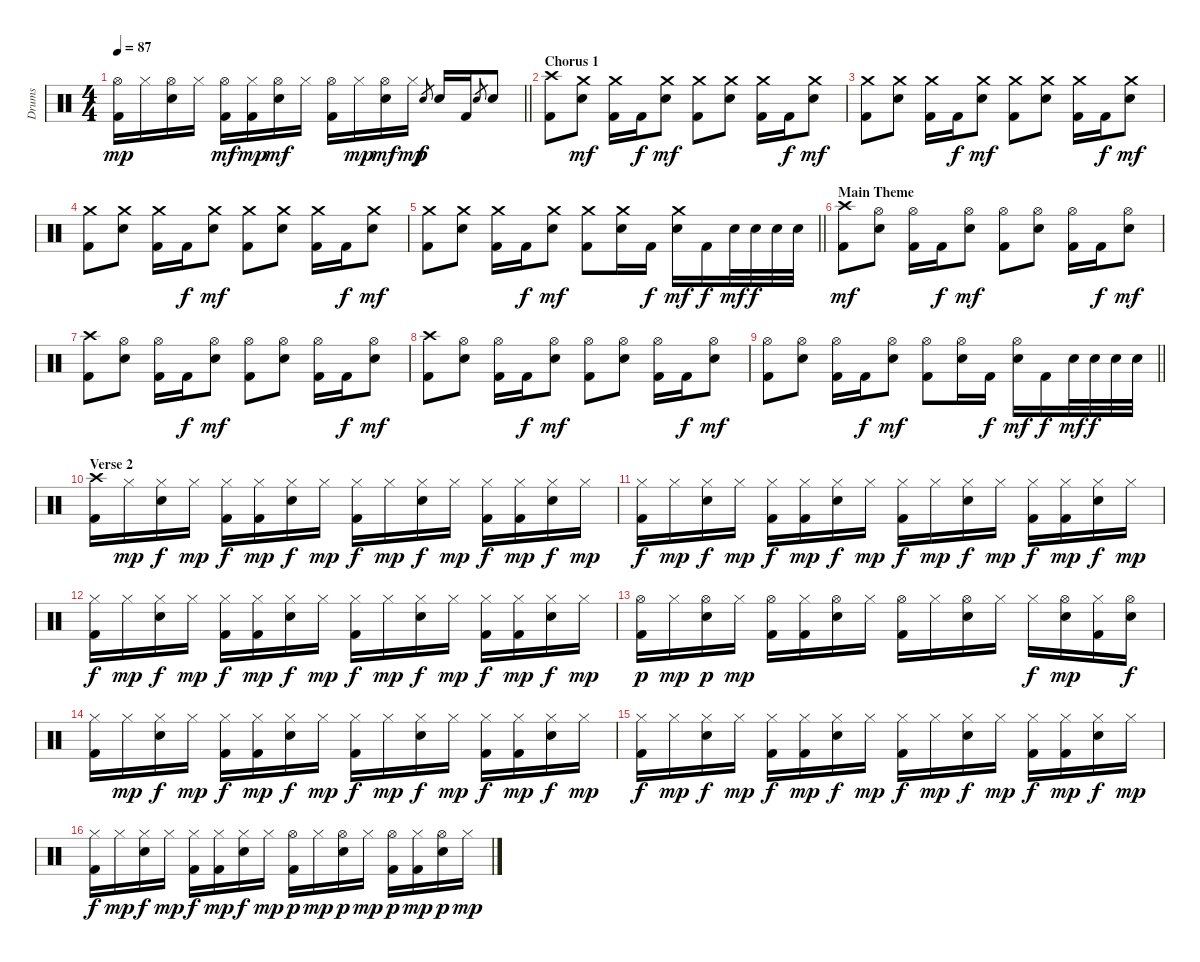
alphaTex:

\track ("Drums" "Drums") {instrument percussion}
\staff {score}
\articulation defaults
\ts (4 4)
\tempo 87
\clef neutral
\barLineRight lightlight
\ks c
("Hi-Hat (open)" "Kick (hit) 2").16{dy mp} "Hi-Hat (closed)".16 ("Hi-Hat (open)" "Electric Snare (hit)").16 "Hi-Hat (closed)".16 ("Hi-Hat (open)" "Kick (hit) 2").16{dy mf} ("Hi-Hat (closed)" "Kick (hit) 2").16{dy mp} ("Hi-Hat (open)" "Electric Snare (hit)").16{dy mf} "Hi-Hat (closed)".16 ("Hi-Hat (open)" "Kick (hit) 2").16 "Hi-Hat (closed)".16{dy mp} ("Hi-Hat (open)" "Electric Snare (hit)").16{dy mf} "Hi-Hat (closed)".16{dy mp} "Electric Snare (hit)".8{gr dy f} "Electric Snare (hit)".16 "Kick (hit) 2".16 "Electric Snare (hit)".8{gr} "Electric Snare (hit)".8 |
\section ("" "Chorus 1")
("Crash high (hit)" "Kick (hit) 2").8 ("Crash medium (hit)" "Electric Snare (hit)").8{dy mf} ("Crash medium (hit)" "Kick (hit) 2").16 "Kick (hit) 2".16{dy f} ("Crash medium (hit)" "Electric Snare (hit)").8{dy mf} ("Crash medium (hit)" "Kick (hit) 2").8 ("Crash medium (hit)" "Electric Snare (hit)").8 ("Crash medium (hit)" "Kick (hit) 2").16 "Kick (hit) 2".16{dy f} ("Crash medium (hit)" "Electric Snare (hit)").8{dy mf} |
("Crash medium (hit)" "Kick (hit) 2").8 ("Crash medium (hit)" "Electric Snare (hit)").8 ("Crash medium (hit)" "Kick (hit) 2").16 "Kick (hit) 2".16{dy f} ("Crash medium (hit)" "Electric Snare (hit)").8{dy mf} ("Crash medium (hit)" "Kick (hit) 2").8 ("Crash medium (hit)" "Electric Snare (hit)").8 ("Crash medium (hit)" "Kick (hit) 2").16 "Kick (hit) 2".16{dy f} ("Crash medium (hit)" "Electric Snare (hit)").8{dy mf} |
("Crash medium (hit)" "Kick (hit) 2").8 ("Crash medium (hit)" "Electric Snare (hit)").8 ("Crash medium (hit)" "Kick (hit) 2").16 "Kick (hit) 2".16{dy f} ("Crash medium (hit)" "Electric Snare (hit)").8{dy mf} ("Crash medium (hit)" "Kick (hit) 2").8 ("Crash medium (hit)" "Electric Snare (hit)").8 ("Crash medium (hit)" "Kick (hit) 2").16 "Kick (hit) 2".16{dy f} ("Crash medium (hit)" "Electric Snare (hit)").8{dy mf} |
\barLineRight lightlight
("Crash medium (hit)" "Kick (hit) 2").8 ("Crash medium (hit)" "Electric Snare (hit)").8 ("Crash medium (hit)" "Kick (hit) 2").16 "Kick (hit) 2".16{dy f} ("Crash medium (hit)" "Electric Snare (hit)").8{dy mf} ("Crash medium (hit)" "Kick (hit) 2").8 ("Crash medium (hit)" "Electric Snare (hit)").16 "Kick (hit) 2".16{dy f} ("Crash medium (hit)" "Electric Snare (hit)").16{dy mf} "Kick (hit) 2".16{dy f} "Electric Snare (hit)".32{dy mf} "Electric Snare (hit)".32{dy f} "Electric Snare (hit)".32 "Electric Snare (hit)".32 |
\section ("" "Main Theme")
("Crash high (hit)" "Kick (hit) 2").8{dy mf} ("Hi-Hat (open)" "Electric Snare (hit)").8 ("Hi-Hat (open)" "Kick (hit) 2").16 "Kick (hit) 2".16{dy f} ("Hi-Hat (open)" "Electric Snare (hit)").8{dy mf} ("Hi-Hat (open)" "Kick (hit) 2").8 ("Hi-Hat (open)" "Electric Snare (hit)").8 ("Hi-Hat (open)" "Kick (hit) 2").16 "Kick (hit) 2".16{dy f} ("Hi-Hat (open)" "Electric Snare (hit)").8{dy mf} |
("Crash high (hit)" "Kick (hit) 2").8 ("Hi-Hat (open)" "Electric Snare (hit)").8 ("Hi-Hat (open)" "Kick (hit) 2").16 "Kick (hit) 2".16{dy f} ("Hi-Hat (open)" "Electric Snare (hit)").8{dy mf} ("Hi-Hat (open)" "Kick (hit) 2").8 ("Hi-Hat (open)" "Electric Snare (hit)").8 ("Hi-Hat (open)" "Kick (hit) 2").16 "Kick (hit) 2".16{dy f} ("Hi-Hat (open)" "Electric Snare (hit)").8{dy mf} |
("Crash high (hit)" "Kick (hit) 2").8 ("Hi-Hat (open)" "Electric Snare (hit)").8 ("Hi-Hat (open)" "Kick (hit) 2").16 "Kick (hit) 2".16{dy f} ("Hi-Hat (open)" "Electric Snare (hit)").8{dy mf} ("Hi-Hat (open)" "Kick (hit) 2").8 ("Hi-Hat (open)" "Electric Snare (hit)").8 ("Hi-Hat (open)" "Kick (hit) 2").16 "Kick (hit) 2".16{dy f} ("Hi-Hat (open)" "Electric Snare (hit)").8{dy mf} |
\barLineRight lightlight
("Hi-Hat (open)" "Kick (hit) 2").8 ("Hi-Hat (open)" "Electric Snare (hit)").8 ("Hi-Hat (open)" "Kick (hit) 2").16 "Kick (hit) 2".16{dy f} ("Hi-Hat (open)" "Electric Snare (hit)").8{dy mf} ("Hi-Hat (open)" "Kick (hit) 2").8 ("Hi-Hat (open)" "Electric Snare (hit)").16 "Kick (hit) 2".16{dy f} ("Hi-Hat (open)" "Electric Snare (hit)").16{dy mf} "Kick (hit) 2".16{dy f} "Electric Snare (hit)".32{dy mf} "Electric Snare (hit)".32{dy f} "Electric Snare (hit)".32 "Electric Snare (hit)".32 |
\section ("" "Verse 2")
("Crash high (hit)" "Kick (hit) 2").16 "Hi-Hat (closed)".16{dy mp} ("Hi-Hat (closed)" "Electric Snare (hit)").16{dy f} "Hi-Hat (closed)".16{dy mp} ("Hi-Hat (closed)" "Kick (hit) 2").16{dy f} ("Hi-Hat (closed)" "Kick (hit) 2").16{dy mp} ("Hi-Hat (closed)" "Electric Snare (hit)").16{dy f} "Hi-Hat (closed)".16{dy mp} ("Hi-Hat (closed)" "Kick (hit) 2").16{dy f} "Hi-Hat (closed)".16{dy mp} ("Hi-Hat (closed)" "Electric Snare (hit)").16{dy f} "Hi-Hat (closed)".16{dy mp} ("Hi-Hat (closed)" "Kick (hit) 2").16{dy f} ("Hi-Hat (closed)" "Kick (hit) 2").16{dy mp} ("Hi-Hat (closed)" "Electric Snare (hit)").16{dy f} "Hi-Hat (closed)".16{dy mp} |
("Hi-Hat (closed)" "Kick (hit) 2").16{dy f} "Hi-Hat (closed)".16{dy mp} ("Hi-Hat (closed)" "Electric Snare (hit)").16{dy f} "Hi-Hat (closed)".16{dy mp} ("Hi-Hat (closed)" "Kick (hit) 2").16{dy f} ("Hi-Hat (closed)" "Kick (hit) 2").16{dy mp} ("Hi-Hat (closed)" "Electric Snare (hit)").16{dy f} "Hi-Hat (closed)".16{dy mp} ("Hi-Hat (closed)" "Kick (hit) 2").16{dy f} "Hi-Hat (closed)".16{dy mp} ("Hi-Hat (closed)" "Electric Snare (hit)").16{dy f} "Hi-Hat (closed)".16{dy mp} ("Hi-Hat (closed)" "Kick (hit) 2").16{dy f} ("Hi-Hat (closed)" "Kick (hit) 2").16{dy mp} ("Hi-Hat (closed)" "Electric Snare (hit)").16{dy f} "Hi-Hat (closed)".16{dy mp} |
("Hi-Hat (closed)" "Kick (hit) 2").16{dy f} "Hi-Hat (closed)".16{dy mp} ("Hi-Hat (closed)" "Electric Snare (hit)").16{dy f} "Hi-Hat (closed)".16{dy mp} ("Hi-Hat (closed)" "Kick (hit) 2").16{dy f} ("Hi-Hat (closed)" "Kick (hit) 2").16{dy mp} ("Hi-Hat (closed)" "Electric Snare (hit)").16{dy f} "Hi-Hat (closed)".16{dy mp} ("Hi-Hat (closed)" "Kick (hit) 2").16{dy f} "Hi-Hat (closed)".16{dy mp} ("Hi-Hat (closed)" "Electric Snare (hit)").16{dy f} "Hi-Hat (closed)".16{dy mp} ("Hi-Hat (closed)" "Kick (hit) 2").16{dy f} ("Hi-Hat (closed)" "Kick (hit) 2").16{dy mp} ("Hi-Hat (closed)" "Electric Snare (hit)").16{dy f} "Hi-Hat (closed)".16{dy mp} |
("Hi-Hat (open)" "Kick (hit) 2").16{dy p} "Hi-Hat (closed)".16{dy mp} ("Hi-Hat (open)" "Electric Snare (hit)").16{dy p} "Hi-Hat (closed)".16{dy mp} ("Hi-Hat (open)" "Kick (hit) 2").16 ("Hi-Hat (closed)" "Kick (hit) 2").16 ("Hi-Hat (open)" "Electric Snare (hit)").16 "Hi-Hat (closed)".16 ("Hi-Hat (open)" "Kick (hit) 2").16 "Hi-Hat (closed)".16 ("Hi-Hat (open)" "Electric Snare (hit)").16 "Hi-Hat (closed)".16 "Hi-Hat (closed)".16{dy f} ("Hi-Hat (open)" "Electric Snare (hit)").16{dy mp} ("Hi-Hat (closed)" "Kick (hit) 2").16 ("Hi-Hat (open)" "Electric Snare (hit)").16{dy f} |
("Hi-Hat (closed)" "Kick (hit) 2").16 "Hi-Hat (closed)".16{dy mp} ("Hi-Hat (closed)" "Electric Snare (hit)").16{dy f} "Hi-Hat (closed)".16{dy mp} ("Hi-Hat (closed)" "Kick (hit) 2").16{dy f} ("Hi-Hat (closed)" "Kick (hit) 2").16{dy mp} ("Hi-Hat (closed)" "Electric Snare (hit)").16{dy f} "Hi-Hat (closed)".16{dy mp} ("Hi-Hat (closed)" "Kick (hit) 2").16{dy f} "Hi-Hat (closed)".16{dy mp} ("Hi-Hat (closed)" "Electric Snare (hit)").16{dy f} "Hi-Hat (closed)".16{dy mp} ("Hi-Hat (closed)" "Kick (hit) 2").16{dy f} ("Hi-Hat (closed)" "Kick (hit) 2").16{dy mp} ("Hi-Hat (closed)" "Electric Snare (hit)").16{dy f} "Hi-Hat (closed)".16{dy mp} |
("Hi-Hat (closed)" "Kick (hit) 2").16{dy f} "Hi-Hat (closed)".16{dy mp} ("Hi-Hat (closed)" "Electric Snare (hit)").16{dy f} "Hi-Hat (closed)".16{dy mp} ("Hi-Hat (closed)" "Kick (hit) 2").16{dy f} ("Hi-Hat (closed)" "Kick (hit) 2").16{dy mp} ("Hi-Hat (closed)" "Electric Snare (hit)").16{dy f} "Hi-Hat (closed)".16{dy mp} ("Hi-Hat (closed)" "Kick (hit) 2").16{dy f} "Hi-Hat (closed)".16{dy mp} ("Hi-Hat (closed)" "Electric Snare (hit)").16{dy f} "Hi-Hat (closed)".16{dy mp} ("Hi-Hat (closed)" "Kick (hit) 2").16{dy f} ("Hi-Hat (closed)" "Kick (hit) 2").16{dy mp} ("Hi-Hat (closed)" "Electric Snare (hit)").16{dy f} "Hi-Hat (closed)".16{dy mp} |
("Hi-Hat (closed)" "Kick (hit) 2").16{dy f} "Hi-Hat (closed)".16{dy mp} ("Hi-Hat (closed)" "Electric Snare (hit)").16{dy f} "Hi-Hat (closed)".16{dy mp} ("Hi-Hat (closed)" "Kick (hit) 2").16{dy f} ("Hi-Hat (closed)" "Kick (hit) 2").16{dy mp} ("Hi-Hat (closed)" "Electric Snare (hit)").16{dy f} "Hi-Hat (closed)".16{dy mp} ("Hi-Hat (open)" "Kick (hit) 2").16{dy p} "Hi-Hat (closed)".16{dy mp} ("Hi-Hat (open)" "Electric Snare (hit)").16{dy p} "Hi-Hat (closed)".16{dy mp} ("Hi-Hat (open)" "Kick (hit) 2").16{dy p} ("Hi-Hat (closed)" "Kick (hit) 2").16{dy mp} ("Hi-Hat (open)" "Electric Snare (hit)").16{dy p} "Hi-Hat (closed)".16{dy mp}
